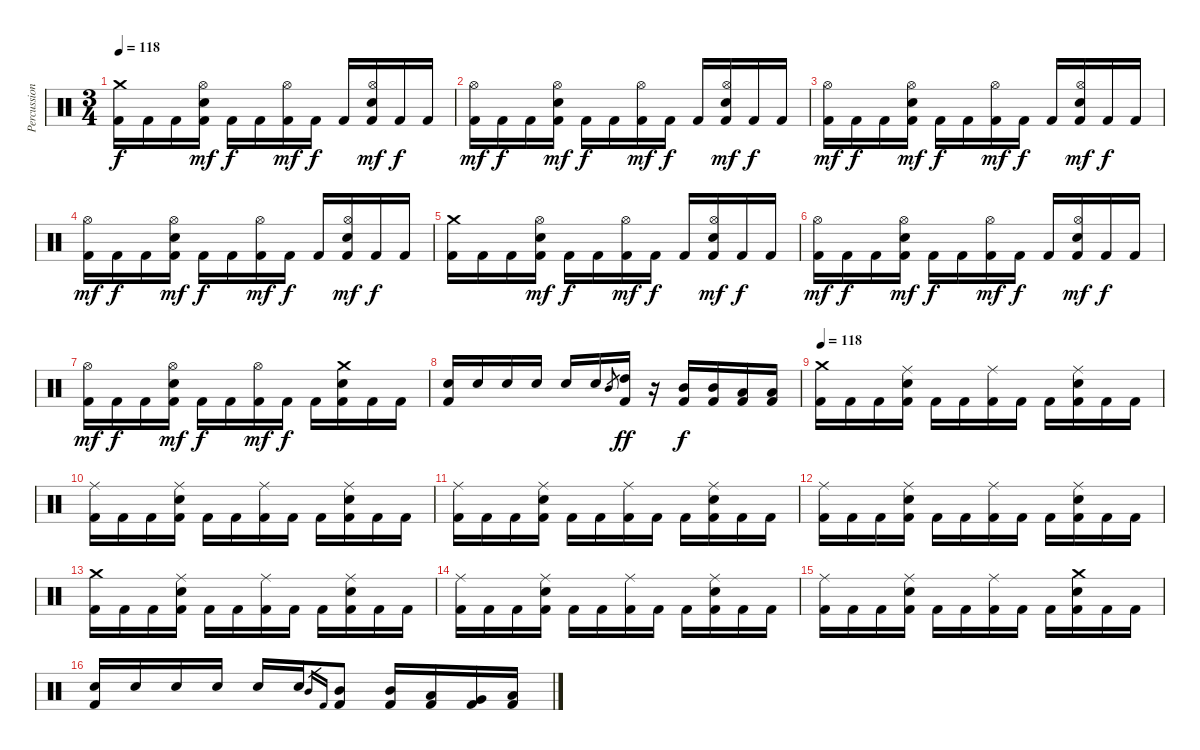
\track ("Percussion" "Percussion") {instrument percussion}
\staff {score}
\articulation defaults
\ts (3 4)
\tempo 118
\clef neutral
\ks c
("Crash medium (hit)" "Kick (hit) 2").16{dy f} "Kick (hit) 2".16 "Kick (hit) 2".16 ("Hi-Hat (open)" "Electric Snare (hit)" "Kick (hit) 2").16{dy mf} "Kick (hit) 2".16{dy f} "Kick (hit) 2".16 ("Hi-Hat (open)" "Kick (hit) 2").16{dy mf} "Kick (hit) 2".16{dy f} "Kick (hit) 2".16 ("Hi-Hat (open)" "Electric Snare (hit)" "Kick (hit) 2").16{dy mf} "Kick (hit) 2".16{dy f} "Kick (hit) 2".16 |
("Hi-Hat (open)" "Kick (hit) 2").16{dy mf} "Kick (hit) 2".16{dy f} "Kick (hit) 2".16 ("Hi-Hat (open)" "Electric Snare (hit)" "Kick (hit) 2").16{dy mf} "Kick (hit) 2".16{dy f} "Kick (hit) 2".16 ("Hi-Hat (open)" "Kick (hit) 2").16{dy mf} "Kick (hit) 2".16{dy f} "Kick (hit) 2".16 ("Hi-Hat (open)" "Electric Snare (hit)" "Kick (hit) 2").16{dy mf} "Kick (hit) 2".16{dy f} "Kick (hit) 2".16 |
("Hi-Hat (open)" "Kick (hit) 2").16{dy mf} "Kick (hit) 2".16{dy f} "Kick (hit) 2".16 ("Hi-Hat (open)" "Electric Snare (hit)" "Kick (hit) 2").16{dy mf} "Kick (hit) 2".16{dy f} "Kick (hit) 2".16 ("Hi-Hat (open)" "Kick (hit) 2").16{dy mf} "Kick (hit) 2".16{dy f} "Kick (hit) 2".16 ("Hi-Hat (open)" "Electric Snare (hit)" "Kick (hit) 2").16{dy mf} "Kick (hit) 2".16{dy f} "Kick (hit) 2".16 |
("Hi-Hat (open)" "Kick (hit) 2").16{dy mf} "Kick (hit) 2".16{dy f} "Kick (hit) 2".16 ("Hi-Hat (open)" "Electric Snare (hit)" "Kick (hit) 2").16{dy mf} "Kick (hit) 2".16{dy f} "Kick (hit) 2".16 ("Hi-Hat (open)" "Kick (hit) 2").16{dy mf} "Kick (hit) 2".16{dy f} "Kick (hit) 2".16 ("Hi-Hat (open)" "Electric Snare (hit)" "Kick (hit) 2").16{dy mf} "Kick (hit) 2".16{dy f} "Kick (hit) 2".16 |
("Crash medium (hit)" "Kick (hit) 2").16 "Kick (hit) 2".16 "Kick (hit) 2".16 ("Hi-Hat (open)" "Electric Snare (hit)" "Kick (hit) 2").16{dy mf} "Kick (hit) 2".16{dy f} "Kick (hit) 2".16 ("Hi-Hat (open)" "Kick (hit) 2").16{dy mf} "Kick (hit) 2".16{dy f} "Kick (hit) 2".16 ("Hi-Hat (open)" "Electric Snare (hit)" "Kick (hit) 2").16{dy mf} "Kick (hit) 2".16{dy f} "Kick (hit) 2".16 |
("Hi-Hat (open)" "Kick (hit) 2").16{dy mf} "Kick (hit) 2".16{dy f} "Kick (hit) 2".16 ("Hi-Hat (open)" "Electric Snare (hit)" "Kick (hit) 2").16{dy mf} "Kick (hit) 2".16{dy f} "Kick (hit) 2".16 ("Hi-Hat (open)" "Kick (hit) 2").16{dy mf} "Kick (hit) 2".16{dy f} "Kick (hit) 2".16 ("Hi-Hat (open)" "Electric Snare (hit)" "Kick (hit) 2").16{dy mf} "Kick (hit) 2".16{dy f} "Kick (hit) 2".16 |
("Hi-Hat (open)" "Kick (hit) 2").16{dy mf} "Kick (hit) 2".16{dy f} "Kick (hit) 2".16 ("Hi-Hat (open)" "Electric Snare (hit)" "Kick (hit) 2").16{dy mf} "Kick (hit) 2".16{dy f} "Kick (hit) 2".16 ("Hi-Hat (open)" "Kick (hit) 2").16{dy mf} "Kick (hit) 2".16{dy f} "Kick (hit) 2".16 ("Crash medium (hit)" "Electric Snare (hit)" "Kick (hit) 2").16 "Kick (hit) 2".16 "Kick (hit) 2".16 |
("Electric Snare (hit)" "Kick (hit) 2").16 "Electric Snare (hit)".16 "Electric Snare (hit)".16 "Electric Snare (hit)".16 "Electric Snare (hit)".16 "Electric Snare (hit)".16 "Mid Tom (hit)".8{gr} ("High Tom (hit)" "Kick (hit) 2").16{dy ff} r.16 ("Mid Tom (hit)" "Kick (hit) 2").16{dy f} ("Mid Tom (hit)" "Kick (hit) 2").16 ("Low Tom (hit)" "Kick (hit) 2").16 ("Low Tom (hit)" "Kick (hit) 2").16 |
\tempo 118
("Crash medium (hit)" "Kick (hit) 2").16 "Kick (hit) 2".16 "Kick (hit) 2".16 ("Ride (middle)" "Electric Snare (hit)" "Kick (hit) 2").16 "Kick (hit) 2".16 "Kick (hit) 2".16 ("Ride (middle)" "Kick (hit) 2").16 "Kick (hit) 2".16 "Kick (hit) 2".16 ("Ride (middle)" "Electric Snare (hit)" "Kick (hit) 2").16 "Kick (hit) 2".16 "Kick (hit) 2".16 |
("Ride (middle)" "Kick (hit) 2").16 "Kick (hit) 2".16 "Kick (hit) 2".16 ("Ride (middle)" "Electric Snare (hit)" "Kick (hit) 2").16 "Kick (hit) 2".16 "Kick (hit) 2".16 ("Ride (middle)" "Kick (hit) 2").16 "Kick (hit) 2".16 "Kick (hit) 2".16 ("Ride (middle)" "Electric Snare (hit)" "Kick (hit) 2").16 "Kick (hit) 2".16 "Kick (hit) 2".16 |
("Ride (middle)" "Kick (hit) 2").16 "Kick (hit) 2".16 "Kick (hit) 2".16 ("Ride (middle)" "Electric Snare (hit)" "Kick (hit) 2").16 "Kick (hit) 2".16 "Kick (hit) 2".16 ("Ride (middle)" "Kick (hit) 2").16 "Kick (hit) 2".16 "Kick (hit) 2".16 ("Ride (middle)" "Electric Snare (hit)" "Kick (hit) 2").16 "Kick (hit) 2".16 "Kick (hit) 2".16 |
("Ride (middle)" "Kick (hit) 2").16 "Kick (hit) 2".16 "Kick (hit) 2".16 ("Ride (middle)" "Electric Snare (hit)" "Kick (hit) 2").16 "Kick (hit) 2".16 "Kick (hit) 2".16 ("Ride (middle)" "Kick (hit) 2").16 "Kick (hit) 2".16 "Kick (hit) 2".16 ("Ride (middle)" "Electric Snare (hit)" "Kick (hit) 2").16 "Kick (hit) 2".16 "Kick (hit) 2".16 |
("Crash medium (hit)" "Kick (hit) 2").16 "Kick (hit) 2".16 "Kick (hit) 2".16 ("Ride (middle)" "Electric Snare (hit)" "Kick (hit) 2").16 "Kick (hit) 2".16 "Kick (hit) 2".16 ("Ride (middle)" "Kick (hit) 2").16 "Kick (hit) 2".16 "Kick (hit) 2".16 ("Ride (middle)" "Electric Snare (hit)" "Kick (hit) 2").16 "Kick (hit) 2".16 "Kick (hit) 2".16 |
("Ride (middle)" "Kick (hit) 2").16 "Kick (hit) 2".16 "Kick (hit) 2".16 ("Ride (middle)" "Electric Snare (hit)" "Kick (hit) 2").16 "Kick (hit) 2".16 "Kick (hit) 2".16 ("Ride (middle)" "Kick (hit) 2").16 "Kick (hit) 2".16 "Kick (hit) 2".16 ("Ride (middle)" "Electric Snare (hit)" "Kick (hit) 2").16 "Kick (hit) 2".16 "Kick (hit) 2".16 |
("Ride (middle)" "Kick (hit) 2").16 "Kick (hit) 2".16 "Kick (hit) 2".16 ("Ride (middle)" "Electric Snare (hit)" "Kick (hit) 2").16 "Kick (hit) 2".16 "Kick (hit) 2".16 ("Ride (middle)" "Kick (hit) 2").16 "Kick (hit) 2".16 "Kick (hit) 2".16 ("Crash medium (hit)" "Electric Snare (hit)" "Kick (hit) 2").16 "Kick (hit) 2".16 "Kick (hit) 2".16 |
("Electric Snare (hit)" "Kick (hit) 2").16 "Electric Snare (hit)".16 "Electric Snare (hit)".16 "Electric Snare (hit)".16 "Electric Snare (hit)".16 "Electric Snare (hit)".16 "Mid Tom (hit)".16{gr} "Kick (hit) 2".16{gr} ("Mid Tom (hit)" "Kick (hit) 2").8 ("Mid Tom (hit)" "Kick (hit) 2").16 ("Low Tom (hit)" "Kick (hit) 2").16 ("Very Low Tom (hit)" "Kick (hit) 2").16 ("Low Floor Tom (hit)" "Kick (hit) 2").16
